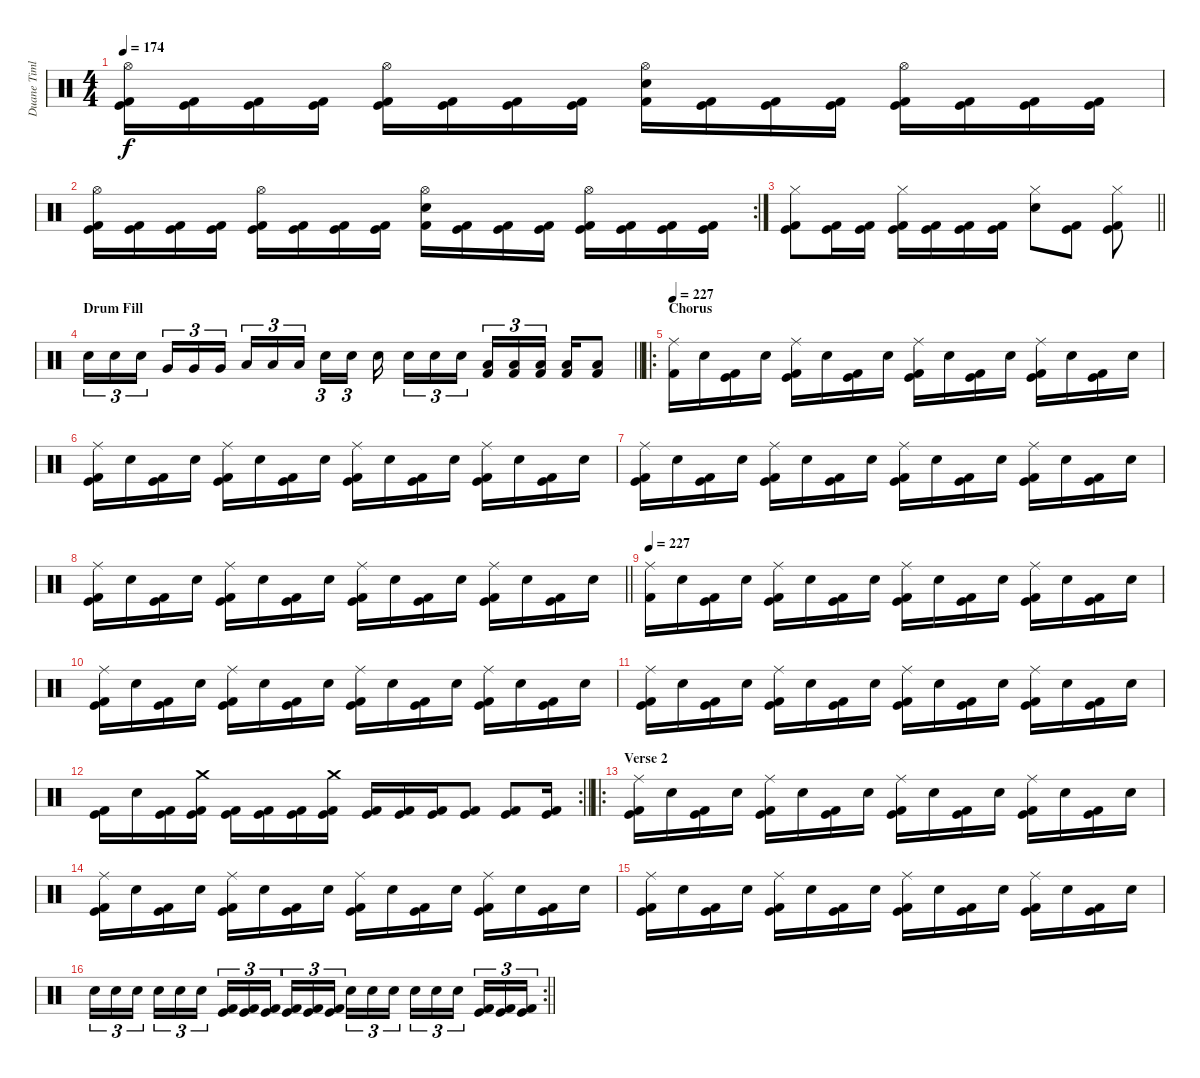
\track ("Duane Timlin" "Duane Timl") {instrument percussion}
\staff {score}
\articulation defaults
\ts (4 4)
\tempo 174
\clef neutral
\ks c
("Hi-Hat (open)" "Kick (hit)" "Kick (hit) 2").16{dy f} ("Kick (hit)" "Kick (hit) 2").16 ("Kick (hit)" "Kick (hit) 2").16 ("Kick (hit)" "Kick (hit) 2").16 ("Hi-Hat (open)" "Kick (hit)" "Kick (hit) 2").16 ("Kick (hit)" "Kick (hit) 2").16 ("Kick (hit)" "Kick (hit) 2").16 ("Kick (hit)" "Kick (hit) 2").16 ("Hi-Hat (open)" "Snare (hit) 2" "Kick (hit) 2").16 ("Kick (hit)" "Kick (hit) 2").16 ("Kick (hit)" "Kick (hit) 2").16 ("Kick (hit)" "Kick (hit) 2").16 ("Hi-Hat (open)" "Kick (hit)" "Kick (hit) 2").16 ("Kick (hit)" "Kick (hit) 2").16 ("Kick (hit)" "Kick (hit) 2").16 ("Kick (hit)" "Kick (hit) 2").16 |
\rc 2
("Hi-Hat (open)" "Kick (hit)" "Kick (hit) 2").16 ("Kick (hit)" "Kick (hit) 2").16 ("Kick (hit)" "Kick (hit) 2").16 ("Kick (hit)" "Kick (hit) 2").16 ("Hi-Hat (open)" "Kick (hit)" "Kick (hit) 2").16 ("Kick (hit)" "Kick (hit) 2").16 ("Kick (hit)" "Kick (hit) 2").16 ("Kick (hit)" "Kick (hit) 2").16 ("Hi-Hat (open)" "Snare (hit) 2" "Kick (hit) 2").16 ("Kick (hit)" "Kick (hit) 2").16 ("Kick (hit)" "Kick (hit) 2").16 ("Kick (hit)" "Kick (hit) 2").16 ("Hi-Hat (open)" "Kick (hit)" "Kick (hit) 2").16 ("Kick (hit)" "Kick (hit) 2").16 ("Kick (hit)" "Kick (hit) 2").16 ("Kick (hit)" "Kick (hit) 2").16 |
\barLineRight lightlight
("Hi-Hat (closed)" "Kick (hit)" "Kick (hit) 2").8 ("Kick (hit)" "Kick (hit) 2").16 ("Kick (hit)" "Kick (hit) 2").16 ("Hi-Hat (closed)" "Kick (hit)" "Kick (hit) 2").16 ("Kick (hit)" "Kick (hit) 2").16 ("Kick (hit)" "Kick (hit) 2").16 ("Kick (hit)" "Kick (hit) 2").16 ("Hi-Hat (closed)" "Snare (hit) 2").8 ("Kick (hit)" "Kick (hit) 2").8 ("Hi-Hat (closed)" "Kick (hit)" "Kick (hit) 2").8 |
\section ("" "Drum Fill")
\barLineRight lightlight "Snare (hit) 2".16{tu (3 2)} "Snare (hit) 2".16{tu (3 2)} "Snare (hit) 2".16{tu (3 2) beam splitsecondary} "Very Low Tom (hit)".16{tu (3 2)} "Very Low Tom (hit)".16{tu (3 2)} "Very Low Tom (hit)".16{tu (3 2)} "Low Floor Tom (hit)".16{tu (3 2)} "Low Floor Tom (hit)".16{tu (3 2)} "Low Floor Tom (hit)".16{tu (3 2) beam splitsecondary} "Snare (hit) 2".16{tu (3 2)} "Snare (hit) 2".16{tu (3 2) beam splitsecondary} "Snare (hit) 2".16 "Snare (hit) 2".16{tu (3 2)} "Snare (hit) 2".16{tu (3 2)} "Snare (hit) 2".16{tu (3 2) beam splitsecondary}
("Low Tom (hit)" "Kick (hit) 2").16{tu (3 2)} ("Low Tom (hit)" "Kick (hit) 2").16{tu (3 2)} ("Low Tom (hit)" "Kick (hit) 2").16{tu (3 2)} ("Low Tom (hit)" "Kick (hit) 2").16 ("Low Tom (hit)" "Kick (hit) 2").8 |
\ro
\section ("" "Chorus")
\tempo 227
("Ride (middle)" "Kick (hit) 2").16 "Snare (hit) 2".16 ("Kick (hit)" "Kick (hit) 2").16 "Snare (hit) 2".16 ("Ride (middle)" "Kick (hit)" "Kick (hit) 2").16 "Snare (hit) 2".16 ("Kick (hit)" "Kick (hit) 2").16 "Snare (hit) 2".16 ("Ride (middle)" "Kick (hit)" "Kick (hit) 2").16 "Snare (hit) 2".16 ("Kick (hit)" "Kick (hit) 2").16 "Snare (hit) 2".16 ("Ride (middle)" "Kick (hit)" "Kick (hit) 2").16 "Snare (hit) 2".16 ("Kick (hit)" "Kick (hit) 2").16 "Snare (hit) 2".16 |
("Ride (middle)" "Kick (hit)" "Kick (hit) 2").16 "Snare (hit) 2".16 ("Kick (hit)" "Kick (hit) 2").16 "Snare (hit) 2".16 ("Ride (middle)" "Kick (hit)" "Kick (hit) 2").16 "Snare (hit) 2".16 ("Kick (hit)" "Kick (hit) 2").16 "Snare (hit) 2".16 ("Ride (middle)" "Kick (hit)" "Kick (hit) 2").16 "Snare (hit) 2".16 ("Kick (hit)" "Kick (hit) 2").16 "Snare (hit) 2".16 ("Ride (middle)" "Kick (hit)" "Kick (hit) 2").16 "Snare (hit) 2".16 ("Kick (hit)" "Kick (hit) 2").16 "Snare (hit) 2".16 |
("Ride (middle)" "Kick (hit)" "Kick (hit) 2").16 "Snare (hit) 2".16 ("Kick (hit)" "Kick (hit) 2").16 "Snare (hit) 2".16 ("Ride (middle)" "Kick (hit)" "Kick (hit) 2").16 "Snare (hit) 2".16 ("Kick (hit)" "Kick (hit) 2").16 "Snare (hit) 2".16 ("Ride (middle)" "Kick (hit)" "Kick (hit) 2").16 "Snare (hit) 2".16 ("Kick (hit)" "Kick (hit) 2").16 "Snare (hit) 2".16 ("Ride (middle)" "Kick (hit)" "Kick (hit) 2").16 "Snare (hit) 2".16 ("Kick (hit)" "Kick (hit) 2").16 "Snare (hit) 2".16 |
\barLineRight lightlight
("Ride (middle)" "Kick (hit)" "Kick (hit) 2").16 "Snare (hit) 2".16 ("Kick (hit)" "Kick (hit) 2").16 "Snare (hit) 2".16 ("Ride (middle)" "Kick (hit)" "Kick (hit) 2").16 "Snare (hit) 2".16 ("Kick (hit)" "Kick (hit) 2").16 "Snare (hit) 2".16 ("Ride (middle)" "Kick (hit)" "Kick (hit) 2").16 "Snare (hit) 2".16 ("Kick (hit)" "Kick (hit) 2").16 "Snare (hit) 2".16 ("Ride (middle)" "Kick (hit)" "Kick (hit) 2").16 "Snare (hit) 2".16 ("Kick (hit)" "Kick (hit) 2").16 "Snare (hit) 2".16 |
\tempo 227
("Ride (middle)" "Kick (hit) 2").16 "Snare (hit) 2".16 ("Kick (hit)" "Kick (hit) 2").16 "Snare (hit) 2".16 ("Ride (middle)" "Kick (hit)" "Kick (hit) 2").16 "Snare (hit) 2".16 ("Kick (hit)" "Kick (hit) 2").16 "Snare (hit) 2".16 ("Ride (middle)" "Kick (hit)" "Kick (hit) 2").16 "Snare (hit) 2".16 ("Kick (hit)" "Kick (hit) 2").16 "Snare (hit) 2".16 ("Ride (middle)" "Kick (hit)" "Kick (hit) 2").16 "Snare (hit) 2".16 ("Kick (hit)" "Kick (hit) 2").16 "Snare (hit) 2".16 |
("Ride (middle)" "Kick (hit)" "Kick (hit) 2").16 "Snare (hit) 2".16 ("Kick (hit)" "Kick (hit) 2").16 "Snare (hit) 2".16 ("Ride (middle)" "Kick (hit)" "Kick (hit) 2").16 "Snare (hit) 2".16 ("Kick (hit)" "Kick (hit) 2").16 "Snare (hit) 2".16 ("Ride (middle)" "Kick (hit)" "Kick (hit) 2").16 "Snare (hit) 2".16 ("Kick (hit)" "Kick (hit) 2").16 "Snare (hit) 2".16 ("Ride (middle)" "Kick (hit)" "Kick (hit) 2").16 "Snare (hit) 2".16 ("Kick (hit)" "Kick (hit) 2").16 "Snare (hit) 2".16 |
("Ride (middle)" "Kick (hit)" "Kick (hit) 2").16 "Snare (hit) 2".16 ("Kick (hit)" "Kick (hit) 2").16 "Snare (hit) 2".16 ("Ride (middle)" "Kick (hit)" "Kick (hit) 2").16 "Snare (hit) 2".16 ("Kick (hit)" "Kick (hit) 2").16 "Snare (hit) 2".16 ("Ride (middle)" "Kick (hit)" "Kick (hit) 2").16 "Snare (hit) 2".16 ("Kick (hit)" "Kick (hit) 2").16 "Snare (hit) 2".16 ("Ride (middle)" "Kick (hit)" "Kick (hit) 2").16 "Snare (hit) 2".16 ("Kick (hit)" "Kick (hit) 2").16 "Snare (hit) 2".16 |
\rc 2
\barLineRight lightlight
("Kick (hit)" "Kick (hit) 2").16 "Snare (hit) 2".16 ("Kick (hit)" "Kick (hit) 2").16 ("Crash medium (hit)" "Kick (hit)" "Kick (hit) 2").16 ("Kick (hit)" "Kick (hit) 2").16 ("Kick (hit)" "Kick (hit) 2").16 ("Kick (hit)" "Kick (hit) 2").16 ("Crash medium (hit)" "Kick (hit)" "Kick (hit) 2").16 ("Kick (hit)" "Kick (hit) 2").16 ("Kick (hit)" "Kick (hit) 2").16 ("Kick (hit)" "Kick (hit) 2").16 ("Kick (hit)" "Kick (hit) 2").8 ("Kick (hit)" "Kick (hit) 2").8 ("Kick (hit)" "Kick (hit) 2").16 |
\ro
\section ("" "Verse 2")
("Ride (middle)" "Kick (hit)" "Kick (hit) 2").16 "Snare (hit) 2".16 ("Kick (hit)" "Kick (hit) 2").16 "Snare (hit) 2".16 ("Ride (middle)" "Kick (hit)" "Kick (hit) 2").16 "Snare (hit) 2".16 ("Kick (hit)" "Kick (hit) 2").16 "Snare (hit) 2".16 ("Ride (middle)" "Kick (hit)" "Kick (hit) 2").16 "Snare (hit) 2".16 ("Kick (hit)" "Kick (hit) 2").16 "Snare (hit) 2".16 ("Ride (middle)" "Kick (hit)" "Kick (hit) 2").16 "Snare (hit) 2".16 ("Kick (hit)" "Kick (hit) 2").16 "Snare (hit) 2".16 |
("Ride (middle)" "Kick (hit)" "Kick (hit) 2").16 "Snare (hit) 2".16 ("Kick (hit)" "Kick (hit) 2").16 "Snare (hit) 2".16 ("Ride (middle)" "Kick (hit)" "Kick (hit) 2").16 "Snare (hit) 2".16 ("Kick (hit)" "Kick (hit) 2").16 "Snare (hit) 2".16 ("Ride (middle)" "Kick (hit)" "Kick (hit) 2").16 "Snare (hit) 2".16 ("Kick (hit)" "Kick (hit) 2").16 "Snare (hit) 2".16 ("Ride (middle)" "Kick (hit)" "Kick (hit) 2").16 "Snare (hit) 2".16 ("Kick (hit)" "Kick (hit) 2").16 "Snare (hit) 2".16 |
("Ride (middle)" "Kick (hit)" "Kick (hit) 2").16 "Snare (hit) 2".16 ("Kick (hit)" "Kick (hit) 2").16 "Snare (hit) 2".16 ("Ride (middle)" "Kick (hit)" "Kick (hit) 2").16 "Snare (hit) 2".16 ("Kick (hit)" "Kick (hit) 2").16 "Snare (hit) 2".16 ("Ride (middle)" "Kick (hit)" "Kick (hit) 2").16 "Snare (hit) 2".16 ("Kick (hit)" "Kick (hit) 2").16 "Snare (hit) 2".16 ("Ride (middle)" "Kick (hit)" "Kick (hit) 2").16 "Snare (hit) 2".16 ("Kick (hit)" "Kick (hit) 2").16 "Snare (hit) 2".16 |
\rc 2
\barLineRight lightlight "Snare (hit) 2".16{tu (3 2)} "Snare (hit) 2".16{tu (3 2)} "Snare (hit) 2".16{tu (3 2) beam splitsecondary} "Snare (hit) 2".16{tu (3 2)} "Snare (hit) 2".16{tu (3 2)} "Snare (hit) 2".16{tu (3 2)}
("Kick (hit)" "Kick (hit) 2").16{tu (3 2)} ("Kick (hit)" "Kick (hit) 2").16{tu (3 2)} ("Kick (hit)" "Kick (hit) 2").16{tu (3 2) beam splitsecondary} ("Kick (hit)" "Kick (hit) 2").16{tu (3 2)} ("Kick (hit)" "Kick (hit) 2").16{tu (3 2)} ("Kick (hit)" "Kick (hit) 2").16{tu (3 2)} "Snare (hit) 2".16{tu (3 2)} "Snare (hit) 2".16{tu (3 2)} "Snare (hit) 2".16{tu (3 2) beam splitsecondary} "Snare (hit) 2".16{tu (3 2)} "Snare (hit) 2".16{tu (3 2)} "Snare (hit) 2".16{tu (3 2)} ("Kick (hit)" "Kick (hit) 2").16{tu (3 2)} ("Kick (hit)" "Kick (hit) 2").16{tu (3 2)} ("Kick (hit)" "Kick (hit) 2").16{tu (3 2)}
